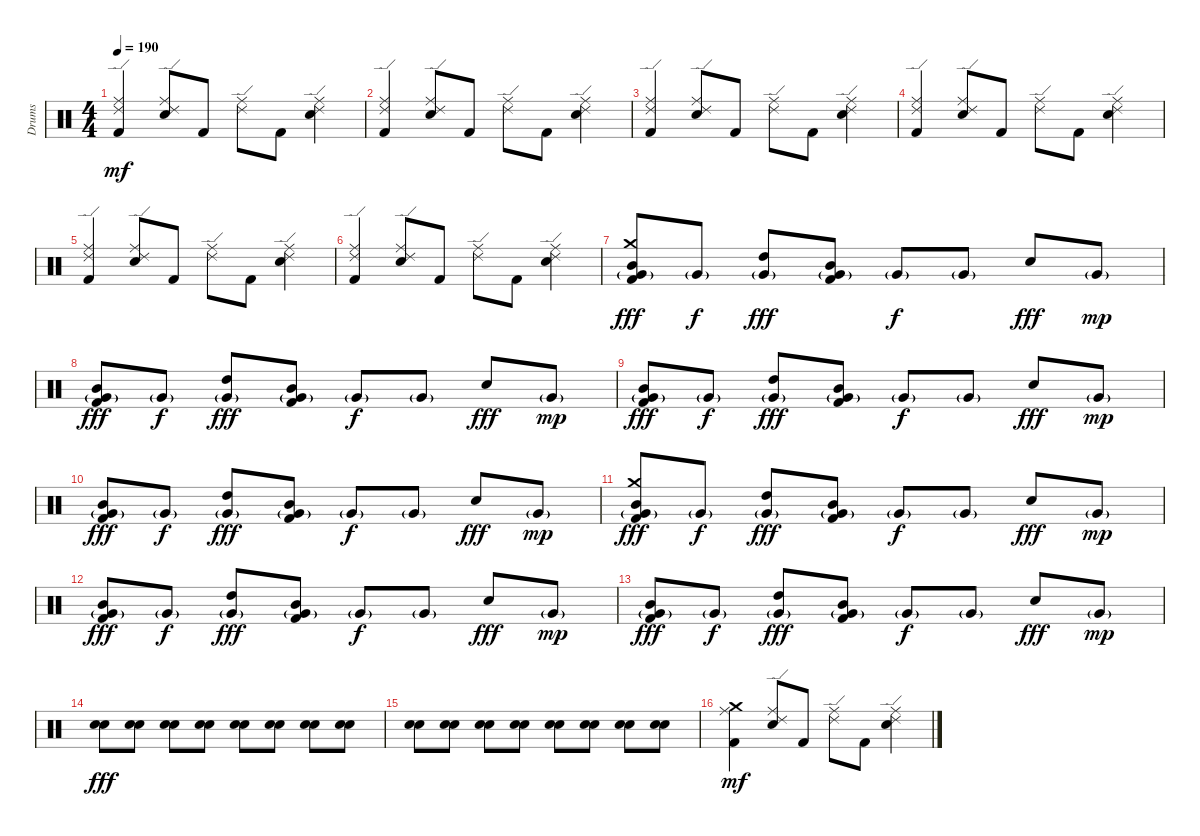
\track ("Drums" "Drums") {instrument percussion}
\staff {score}
\articulation defaults
\ts (4 4)
\tempo 190
\clef neutral
\ks c
("Ride (edge) 2" "Ride (middle)" "Kick (hit) 2").4{dy mf} ("Ride (edge) 2" "Ride (middle)" "Snare (hit) 2").8 "Kick (hit) 2".8 ("Ride (edge) 2" "Ride (middle)").8 "Kick (hit) 2".8 ("Ride (edge) 2" "Ride (middle)" "Snare (hit) 2").4 |
("Ride (edge) 2" "Ride (middle)" "Kick (hit) 2").4 ("Ride (edge) 2" "Ride (middle)" "Snare (hit) 2").8 "Kick (hit) 2".8 ("Ride (edge) 2" "Ride (middle)").8 "Kick (hit) 2".8 ("Ride (edge) 2" "Ride (middle)" "Snare (hit) 2").4 |
("Ride (edge) 2" "Ride (middle)" "Kick (hit) 2").4 ("Ride (edge) 2" "Ride (middle)" "Snare (hit) 2").8 "Kick (hit) 2".8 ("Ride (edge) 2" "Ride (middle)").8 "Kick (hit) 2".8 ("Ride (edge) 2" "Ride (middle)" "Snare (hit) 2").4 |
("Ride (edge) 2" "Ride (middle)" "Kick (hit) 2").4 ("Ride (edge) 2" "Ride (middle)" "Snare (hit) 2").8 "Kick (hit) 2".8 ("Ride (edge) 2" "Ride (middle)").8 "Kick (hit) 2".8 ("Ride (edge) 2" "Ride (middle)" "Snare (hit) 2").4 |
("Ride (edge) 2" "Ride (middle)" "Kick (hit) 2").4 ("Ride (edge) 2" "Ride (middle)" "Snare (hit) 2").8 "Kick (hit) 2".8 ("Ride (edge) 2" "Ride (middle)").8 "Kick (hit) 2".8 ("Ride (edge) 2" "Ride (middle)" "Snare (hit) 2").4 |
("Ride (edge) 2" "Ride (middle)" "Kick (hit) 2").4 ("Ride (edge) 2" "Ride (middle)" "Snare (hit) 2").8 "Kick (hit) 2".8 ("Ride (edge) 2" "Ride (middle)").8 "Kick (hit) 2".8 ("Ride (edge) 2" "Ride (middle)" "Snare (hit) 2").4 |
("Crash medium (hit)" "Mid Tom (hit)" "Very Low Tom (hit)"{g} "Kick (hit) 2").8{dy fff} "Very Low Tom (hit)"{g}.8{dy f} ("High Tom (hit)" "Very Low Tom (hit)"{g}).8{dy fff} ("Mid Tom (hit)" "Very Low Tom (hit)"{g} "Kick (hit) 2").8 "Very Low Tom (hit)"{g}.8{dy f} "Very Low Tom (hit)"{g}.8 "Electric Snare (hit)".8{dy fff} "Very Low Tom (hit)"{g}.8{dy mp} |
("Mid Tom (hit)" "Very Low Tom (hit)"{g} "Kick (hit) 2").8{dy fff} "Very Low Tom (hit)"{g}.8{dy f} ("High Tom (hit)" "Very Low Tom (hit)"{g}).8{dy fff} ("Mid Tom (hit)" "Very Low Tom (hit)"{g} "Kick (hit) 2").8 "Very Low Tom (hit)"{g}.8{dy f} "Very Low Tom (hit)"{g}.8 "Electric Snare (hit)".8{dy fff} "Very Low Tom (hit)"{g}.8{dy mp} |
("Mid Tom (hit)" "Very Low Tom (hit)"{g} "Kick (hit) 2").8{dy fff} "Very Low Tom (hit)"{g}.8{dy f} ("High Tom (hit)" "Very Low Tom (hit)"{g}).8{dy fff} ("Mid Tom (hit)" "Very Low Tom (hit)"{g} "Kick (hit) 2").8 "Very Low Tom (hit)"{g}.8{dy f} "Very Low Tom (hit)"{g}.8 "Electric Snare (hit)".8{dy fff} "Very Low Tom (hit)"{g}.8{dy mp} |
("Mid Tom (hit)" "Very Low Tom (hit)"{g} "Kick (hit) 2").8{dy fff} "Very Low Tom (hit)"{g}.8{dy f} ("High Tom (hit)" "Very Low Tom (hit)"{g}).8{dy fff} ("Mid Tom (hit)" "Very Low Tom (hit)"{g} "Kick (hit) 2").8 "Very Low Tom (hit)"{g}.8{dy f} "Very Low Tom (hit)"{g}.8 "Electric Snare (hit)".8{dy fff} "Very Low Tom (hit)"{g}.8{dy mp} |
("Crash medium (hit)" "Mid Tom (hit)" "Very Low Tom (hit)"{g} "Kick (hit) 2").8{dy fff} "Very Low Tom (hit)"{g}.8{dy f} ("High Tom (hit)" "Very Low Tom (hit)"{g}).8{dy fff} ("Mid Tom (hit)" "Very Low Tom (hit)"{g} "Kick (hit) 2").8 "Very Low Tom (hit)"{g}.8{dy f} "Very Low Tom (hit)"{g}.8 "Electric Snare (hit)".8{dy fff} "Very Low Tom (hit)"{g}.8{dy mp} |
("Mid Tom (hit)" "Very Low Tom (hit)"{g} "Kick (hit) 2").8{dy fff} "Very Low Tom (hit)"{g}.8{dy f} ("High Tom (hit)" "Very Low Tom (hit)"{g}).8{dy fff} ("Mid Tom (hit)" "Very Low Tom (hit)"{g} "Kick (hit) 2").8 "Very Low Tom (hit)"{g}.8{dy f} "Very Low Tom (hit)"{g}.8 "Electric Snare (hit)".8{dy fff} "Very Low Tom (hit)"{g}.8{dy mp} |
("Mid Tom (hit)" "Very Low Tom (hit)"{g} "Kick (hit) 2").8{dy fff} "Very Low Tom (hit)"{g}.8{dy f} ("High Tom (hit)" "Very Low Tom (hit)"{g}).8{dy fff} ("Mid Tom (hit)" "Very Low Tom (hit)"{g} "Kick (hit) 2").8 "Very Low Tom (hit)"{g}.8{dy f} "Very Low Tom (hit)"{g}.8 "Electric Snare (hit)".8{dy fff} "Very Low Tom (hit)"{g}.8{dy mp volume 5} |
("Snare (hit) 2" "Electric Snare (hit)").8{dy fff volume 16} ("Snare (hit) 2" "Electric Snare (hit)").8 ("Snare (hit) 2" "Electric Snare (hit)").8 ("Snare (hit) 2" "Electric Snare (hit)").8 ("Snare (hit) 2" "Electric Snare (hit)").8 ("Snare (hit) 2" "Electric Snare (hit)").8 ("Snare (hit) 2" "Electric Snare (hit)").8 ("Snare (hit) 2" "Electric Snare (hit)").8 |
("Snare (hit) 2" "Electric Snare (hit)").8 ("Snare (hit) 2" "Electric Snare (hit)").8 ("Snare (hit) 2" "Electric Snare (hit)").8 ("Snare (hit) 2" "Electric Snare (hit)").8 ("Snare (hit) 2" "Electric Snare (hit)").8 ("Snare (hit) 2" "Electric Snare (hit)").8 ("Snare (hit) 2" "Electric Snare (hit)").8 ("Snare (hit) 2" "Electric Snare (hit)").8 |
("Crash medium (hit)" "Ride (middle)" "Kick (hit) 2").4{dy mf} ("Ride (edge) 2" "Ride (middle)" "Snare (hit) 2").8 "Kick (hit) 2".8 ("Ride (edge) 2" "Ride (middle)").8 "Kick (hit) 2".8 ("Ride (edge) 2" "Ride (middle)" "Snare (hit) 2").4
